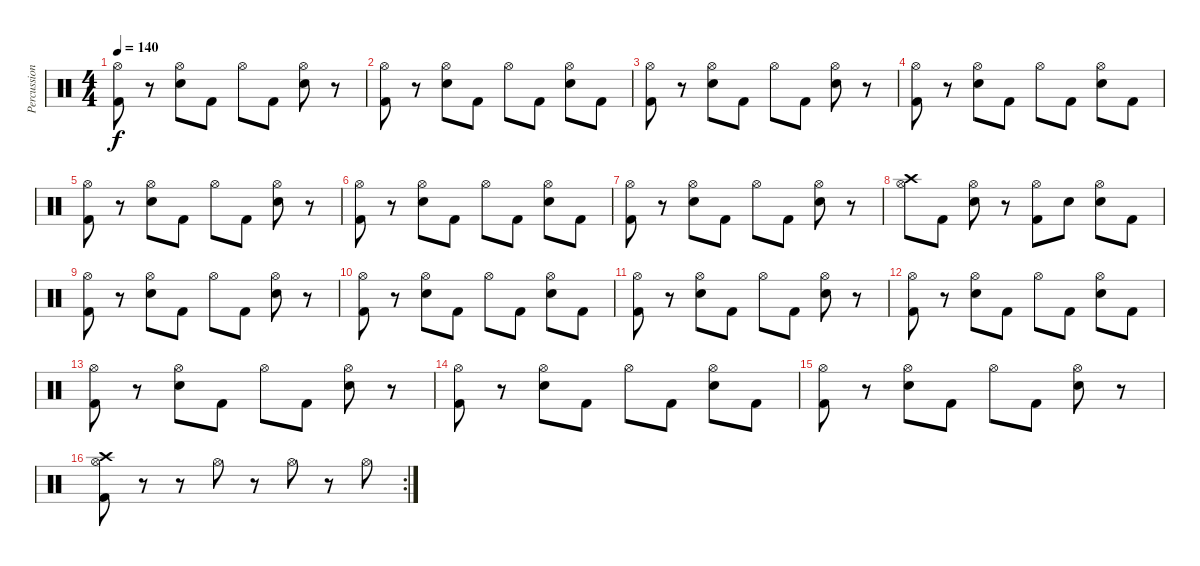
\track ("Percussion" "Percussion") {instrument percussion}
\staff {score}
\articulation defaults
\ts (4 4)
\tempo 140
\clef neutral
\ks c
("Hi-Hat (open)" "Kick (hit) 2").8{dy f} r.8 ("Hi-Hat (open)" "Electric Snare (hit)").8 "Kick (hit) 2".8 "Hi-Hat (open)".8 "Kick (hit) 2".8 ("Hi-Hat (open)" "Electric Snare (hit)").8 r.8 |
("Hi-Hat (open)" "Kick (hit) 2").8 r.8 ("Hi-Hat (open)" "Electric Snare (hit)").8 "Kick (hit) 2".8 "Hi-Hat (open)".8 "Kick (hit) 2".8 ("Hi-Hat (open)" "Electric Snare (hit)").8 "Kick (hit) 2".8 |
("Hi-Hat (open)" "Kick (hit) 2").8 r.8 ("Hi-Hat (open)" "Electric Snare (hit)").8 "Kick (hit) 2".8 "Hi-Hat (open)".8 "Kick (hit) 2".8 ("Hi-Hat (open)" "Electric Snare (hit)").8 r.8 |
("Hi-Hat (open)" "Kick (hit) 2").8 r.8 ("Hi-Hat (open)" "Electric Snare (hit)").8 "Kick (hit) 2".8 "Hi-Hat (open)".8 "Kick (hit) 2".8 ("Hi-Hat (open)" "Electric Snare (hit)").8 "Kick (hit) 2".8 |
("Hi-Hat (open)" "Kick (hit) 2").8 r.8 ("Hi-Hat (open)" "Electric Snare (hit)").8 "Kick (hit) 2".8 "Hi-Hat (open)".8 "Kick (hit) 2".8 ("Hi-Hat (open)" "Electric Snare (hit)").8 r.8 |
("Hi-Hat (open)" "Kick (hit) 2").8 r.8 ("Hi-Hat (open)" "Electric Snare (hit)").8 "Kick (hit) 2".8 "Hi-Hat (open)".8 "Kick (hit) 2".8 ("Hi-Hat (open)" "Electric Snare (hit)").8 "Kick (hit) 2".8 |
("Hi-Hat (open)" "Kick (hit) 2").8 r.8 ("Hi-Hat (open)" "Electric Snare (hit)").8 "Kick (hit) 2".8 "Hi-Hat (open)".8 "Kick (hit) 2".8 ("Hi-Hat (open)" "Electric Snare (hit)").8 r.8 |
("Hi-Hat (open)" "Crash high (hit)").8 "Kick (hit) 2".8 ("Hi-Hat (open)" "Electric Snare (hit)").8 r.8 ("Hi-Hat (open)" "Kick (hit) 2").8 "Electric Snare (hit)".8 ("Hi-Hat (open)" "Electric Snare (hit)").8 "Kick (hit) 2".8 |
("Hi-Hat (open)" "Kick (hit) 2").8 r.8 ("Hi-Hat (open)" "Electric Snare (hit)").8 "Kick (hit) 2".8 "Hi-Hat (open)".8 "Kick (hit) 2".8 ("Hi-Hat (open)" "Electric Snare (hit)").8 r.8 |
("Hi-Hat (open)" "Kick (hit) 2").8 r.8 ("Hi-Hat (open)" "Electric Snare (hit)").8 "Kick (hit) 2".8 "Hi-Hat (open)".8 "Kick (hit) 2".8 ("Hi-Hat (open)" "Electric Snare (hit)").8 "Kick (hit) 2".8 |
("Hi-Hat (open)" "Kick (hit) 2").8 r.8 ("Hi-Hat (open)" "Electric Snare (hit)").8 "Kick (hit) 2".8 "Hi-Hat (open)".8 "Kick (hit) 2".8 ("Hi-Hat (open)" "Electric Snare (hit)").8 r.8 |
("Hi-Hat (open)" "Kick (hit) 2").8 r.8 ("Hi-Hat (open)" "Electric Snare (hit)").8 "Kick (hit) 2".8 "Hi-Hat (open)".8 "Kick (hit) 2".8 ("Hi-Hat (open)" "Electric Snare (hit)").8 "Kick (hit) 2".8 |
("Hi-Hat (open)" "Kick (hit) 2").8 r.8 ("Hi-Hat (open)" "Electric Snare (hit)").8 "Kick (hit) 2".8 "Hi-Hat (open)".8 "Kick (hit) 2".8 ("Hi-Hat (open)" "Electric Snare (hit)").8 r.8 |
("Hi-Hat (open)" "Kick (hit) 2").8 r.8 ("Hi-Hat (open)" "Electric Snare (hit)").8 "Kick (hit) 2".8 "Hi-Hat (open)".8 "Kick (hit) 2".8 ("Hi-Hat (open)" "Electric Snare (hit)").8 "Kick (hit) 2".8 |
("Hi-Hat (open)" "Kick (hit) 2").8 r.8 ("Hi-Hat (open)" "Electric Snare (hit)").8 "Kick (hit) 2".8 "Hi-Hat (open)".8 "Kick (hit) 2".8 ("Hi-Hat (open)" "Electric Snare (hit)").8 r.8 |
\rc 2
("Hi-Hat (open)" "Crash high (hit)" "Kick (hit) 2").8 r.8 r.8 "Hi-Hat (open)".8 r.8 "Hi-Hat (open)".8 r.8 "Hi-Hat (open)".8
